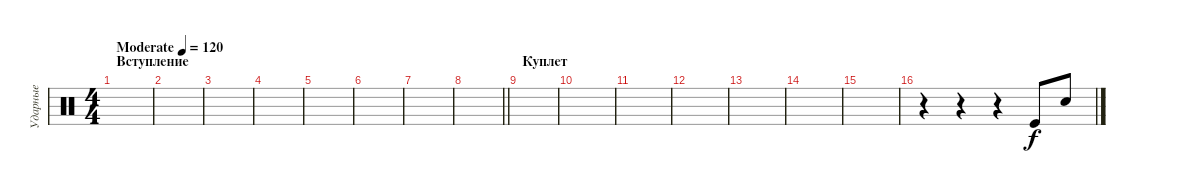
\track ("Ударные" "Ударные") {instrument percussion}
\staff {score}
\articulation defaults
\ts (4 4)
\section ("" "Вступление")
\tempo (120 "Moderate")
\clef neutral
\ks c
|
|
|
|
|
|
|
\barLineRight lightlight
|
\section ("" "Куплет")
|
|
|
|
|
|
|
r.4 r.4 r.4 "Kick (hit)".8 "Snare (hit) 2".8
